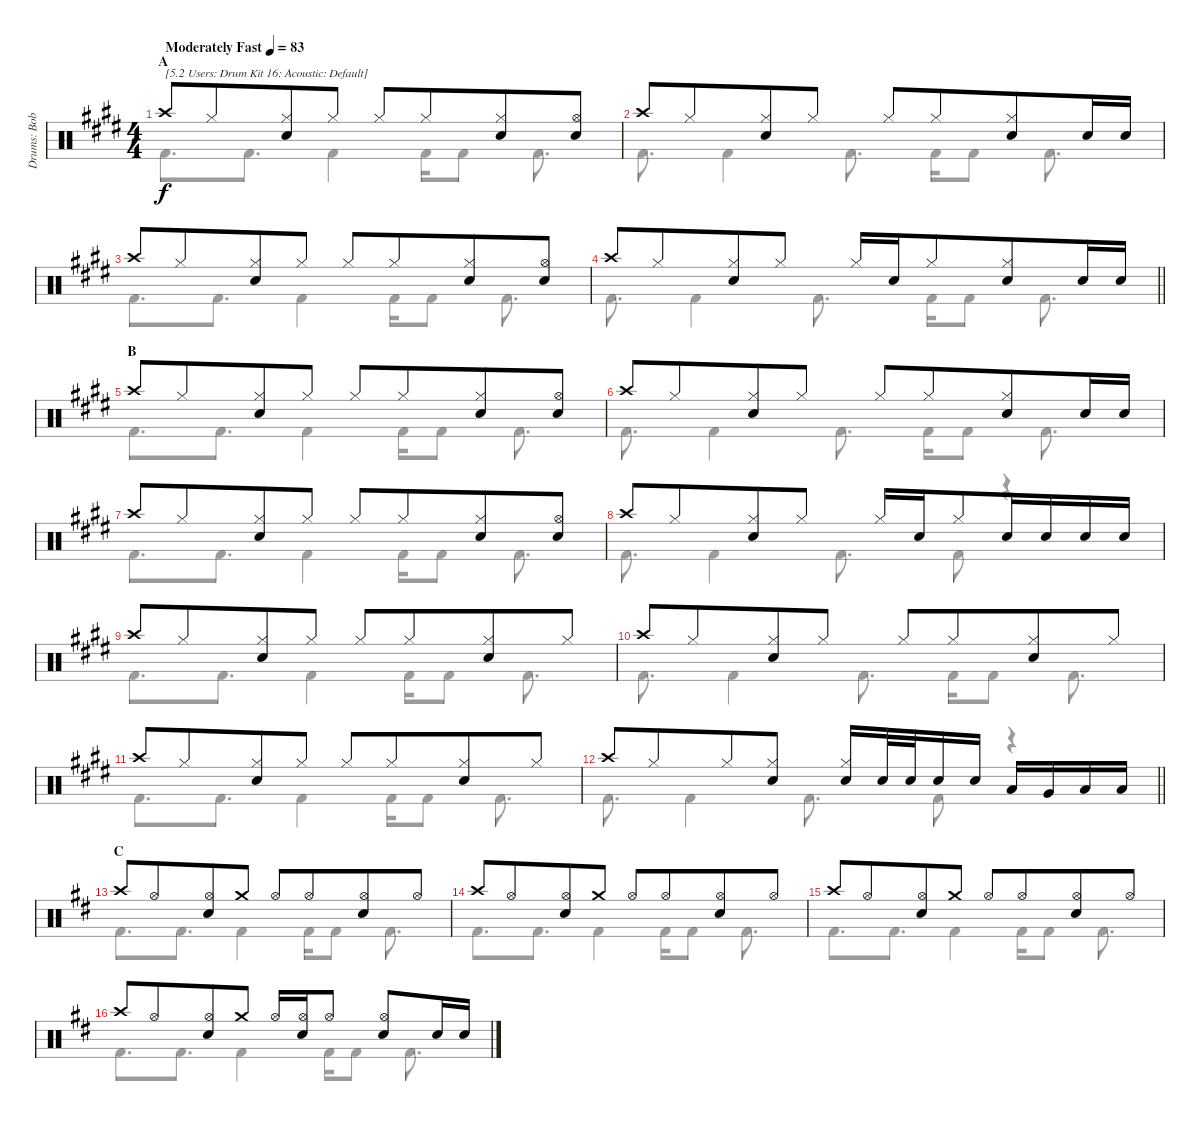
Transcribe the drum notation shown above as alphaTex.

\track ("Drums: Bobby" "Drums: Bob") {instrument percussion}
\staff {score}
\articulation defaults
\voice
\ts (4 4)
\section ("" "A")
\tempo (83 "Moderately Fast")
\clef neutral
\ks e "Crash high (hit)".8{txt "[5.2 Users: Drum Kit 16: Acoustic: Default]" dy f} "Hi-Hat (closed)".8{beam merge}
("Hi-Hat (closed)" "Snare (hit) 2").8 "Hi-Hat (closed)".8 "Hi-Hat (closed)".8 "Hi-Hat (closed)".8{beam merge} ("Hi-Hat (closed)" "Snare (hit) 2").8 ("Hi-Hat (open)" "Snare (hit) 2").8 |
"Crash high (hit)".8 "Hi-Hat (closed)".8{beam merge} ("Hi-Hat (closed)" "Snare (hit) 2").8 "Hi-Hat (closed)".8 "Hi-Hat (closed)".8 "Hi-Hat (closed)".8{beam merge} ("Hi-Hat (closed)" "Snare (hit) 2").8 "Snare (hit) 2".16 "Snare (hit) 2".16 |
"Crash high (hit)".8 "Hi-Hat (closed)".8{beam merge} ("Hi-Hat (closed)" "Snare (hit) 2").8 "Hi-Hat (closed)".8 "Hi-Hat (closed)".8 "Hi-Hat (closed)".8{beam merge} ("Hi-Hat (closed)" "Snare (hit) 2").8 ("Hi-Hat (open)" "Snare (hit) 2").8 |
\barLineRight lightlight "Crash high (hit)".8 "Hi-Hat (closed)".8{beam merge}
("Hi-Hat (closed)" "Snare (hit) 2").8 "Hi-Hat (closed)".8 "Hi-Hat (closed)".16 "Snare (hit) 2".16 "Hi-Hat (closed)".8{beam merge} ("Hi-Hat (closed)" "Snare (hit) 2").8 "Snare (hit) 2".16 "Snare (hit) 2".16 |
\section ("" "B")
"Crash high (hit)".8 "Hi-Hat (closed)".8{beam merge} ("Hi-Hat (closed)" "Snare (hit) 2").8 "Hi-Hat (closed)".8 "Hi-Hat (closed)".8 "Hi-Hat (closed)".8{beam merge} ("Hi-Hat (closed)" "Snare (hit) 2").8 ("Hi-Hat (open)" "Snare (hit) 2").8 |
"Crash high (hit)".8 "Hi-Hat (closed)".8{beam merge} ("Hi-Hat (closed)" "Snare (hit) 2").8 "Hi-Hat (closed)".8 "Hi-Hat (closed)".8 "Hi-Hat (closed)".8{beam merge} ("Hi-Hat (closed)" "Snare (hit) 2").8 "Snare (hit) 2".16 "Snare (hit) 2".16 |
"Crash high (hit)".8 "Hi-Hat (closed)".8{beam merge} ("Hi-Hat (closed)" "Snare (hit) 2").8 "Hi-Hat (closed)".8 "Hi-Hat (closed)".8 "Hi-Hat (closed)".8{beam merge} ("Hi-Hat (closed)" "Snare (hit) 2").8 ("Hi-Hat (open)" "Snare (hit) 2").8 |
"Crash high (hit)".8 "Hi-Hat (closed)".8{beam merge} ("Hi-Hat (closed)" "Snare (hit) 2").8 "Hi-Hat (closed)".8 "Hi-Hat (closed)".16 "Snare (hit) 2".16 "Hi-Hat (closed)".8{beam merge} "Snare (hit) 2".16 "Snare (hit) 2".16 "Snare (hit) 2".16 "Snare (hit) 2".16 |
"Crash high (hit)".8 "Hi-Hat (closed)".8{beam merge} ("Hi-Hat (closed)" "Snare (hit) 2").8 "Hi-Hat (closed)".8 "Hi-Hat (closed)".8 "Hi-Hat (closed)".8{beam merge} ("Hi-Hat (closed)" "Snare (hit) 2").8 "Hi-Hat (closed)".8 |
"Crash high (hit)".8 "Hi-Hat (closed)".8{beam merge} ("Hi-Hat (closed)" "Snare (hit) 2").8 "Hi-Hat (closed)".8 "Hi-Hat (closed)".8 "Hi-Hat (closed)".8{beam merge} ("Hi-Hat (closed)" "Snare (hit) 2").8 "Hi-Hat (closed)".8 |
"Crash high (hit)".8 "Hi-Hat (closed)".8{beam merge} ("Hi-Hat (closed)" "Snare (hit) 2").8 "Hi-Hat (closed)".8 "Hi-Hat (closed)".8 "Hi-Hat (closed)".8{beam merge} ("Hi-Hat (closed)" "Snare (hit) 2").8 "Hi-Hat (closed)".8 |
\barLineRight lightlight "Crash high (hit)".8 "Hi-Hat (closed)".8{beam merge} "Hi-Hat (closed)".8
("Hi-Hat (closed)" "Snare (hit) 2").8 ("Hi-Hat (closed)" "Snare (hit) 2").16 "Snare (hit) 2".32 "Snare (hit) 2".32{beam merge} "Snare (hit) 2".16 "Snare (hit) 2".16 "Low Tom (hit)".16 "Very Low Tom (hit)".16 "Low Tom (hit)".16 "Low Tom (hit)".16 |
\section ("" "C")
\ks d "Crash high (hit)".8 "Hi-Hat (open)".8{beam merge}
("Hi-Hat (open)" "Snare (hit) 2").8 "Crash medium (hit)".8 "Hi-Hat (open)".8 "Hi-Hat (open)".8{beam merge} ("Hi-Hat (open)" "Snare (hit) 2").8 "Hi-Hat (open)".8 |
"Crash high (hit)".8 "Hi-Hat (open)".8{beam merge} ("Hi-Hat (open)" "Snare (hit) 2").8 "Crash medium (hit)".8 "Hi-Hat (open)".8 "Hi-Hat (open)".8{beam merge} ("Hi-Hat (open)" "Snare (hit) 2").8 "Hi-Hat (open)".8 |
"Crash high (hit)".8 "Hi-Hat (open)".8{beam merge} ("Hi-Hat (open)" "Snare (hit) 2").8 "Crash medium (hit)".8 "Hi-Hat (open)".8 "Hi-Hat (open)".8{beam merge} ("Hi-Hat (open)" "Snare (hit) 2").8 "Hi-Hat (open)".8 |
"Crash high (hit)".8 "Hi-Hat (open)".8{beam merge} ("Hi-Hat (open)" "Snare (hit) 2").8 "Crash medium (hit)".8 "Hi-Hat (open)".16{beam merge} ("Hi-Hat (open)" "Snare (hit) 2").16 "Hi-Hat (open)".8 ("Hi-Hat (open)" "Snare (hit) 2").8 "Snare (hit) 2".16 "Snare (hit) 2".16
\voice
\clef neutral
\ottava regular
\simile none
\ks e "Kick (hit) 2".8{d dy f} "Kick (hit) 2".8{d} "Kick (hit) 2".4 "Kick (hit) 2".16 "Kick (hit) 2".8 "Kick (hit) 2".8{d}
|
"Kick (hit) 2".8{d} "Kick (hit) 2".4 "Kick (hit) 2".8{d} "Kick (hit) 2".16 "Kick (hit) 2".8 "Kick (hit) 2".8{d} |
"Kick (hit) 2".8{d} "Kick (hit) 2".8{d} "Kick (hit) 2".4 "Kick (hit) 2".16 "Kick (hit) 2".8 "Kick (hit) 2".8{d} |
\barLineRight lightlight "Kick (hit) 2".8{d} "Kick (hit) 2".4 "Kick (hit) 2".8{d} "Kick (hit) 2".16 "Kick (hit) 2".8 "Kick (hit) 2".8{d}
|
"Kick (hit) 2".8{d} "Kick (hit) 2".8{d} "Kick (hit) 2".4 "Kick (hit) 2".16 "Kick (hit) 2".8 "Kick (hit) 2".8{d} |
"Kick (hit) 2".8{d} "Kick (hit) 2".4 "Kick (hit) 2".8{d} "Kick (hit) 2".16 "Kick (hit) 2".8 "Kick (hit) 2".8{d} |
"Kick (hit) 2".8{d} "Kick (hit) 2".8{d} "Kick (hit) 2".4 "Kick (hit) 2".16 "Kick (hit) 2".8 "Kick (hit) 2".8{d} |
"Kick (hit) 2".8{d} "Kick (hit) 2".4 "Kick (hit) 2".8{d} "Kick (hit) 2".8 r.4 |
"Kick (hit) 2".8{d} "Kick (hit) 2".8{d} "Kick (hit) 2".4 "Kick (hit) 2".16 "Kick (hit) 2".8 "Kick (hit) 2".8{d} |
"Kick (hit) 2".8{d} "Kick (hit) 2".4 "Kick (hit) 2".8{d} "Kick (hit) 2".16 "Kick (hit) 2".8 "Kick (hit) 2".8{d} |
"Kick (hit) 2".8{d} "Kick (hit) 2".8{d} "Kick (hit) 2".4 "Kick (hit) 2".16 "Kick (hit) 2".8 "Kick (hit) 2".8{d} |
\barLineRight lightlight "Kick (hit) 2".8{d} "Kick (hit) 2".4 "Kick (hit) 2".8{d} "Kick (hit) 2".8
r.4 |
\ks d "Kick (hit) 2".8{d} "Kick (hit) 2".8{d} "Kick (hit) 2".4 "Kick (hit) 2".16 "Kick (hit) 2".8 "Kick (hit) 2".8{d}
|
"Kick (hit) 2".8{d} "Kick (hit) 2".8{d} "Kick (hit) 2".4 "Kick (hit) 2".16 "Kick (hit) 2".8 "Kick (hit) 2".8{d} |
"Kick (hit) 2".8{d} "Kick (hit) 2".8{d} "Kick (hit) 2".4 "Kick (hit) 2".16 "Kick (hit) 2".8 "Kick (hit) 2".8{d} |
"Kick (hit) 2".8{d} "Kick (hit) 2".8{d} "Kick (hit) 2".4 "Kick (hit) 2".16 "Kick (hit) 2".8 "Kick (hit) 2".8{d}
